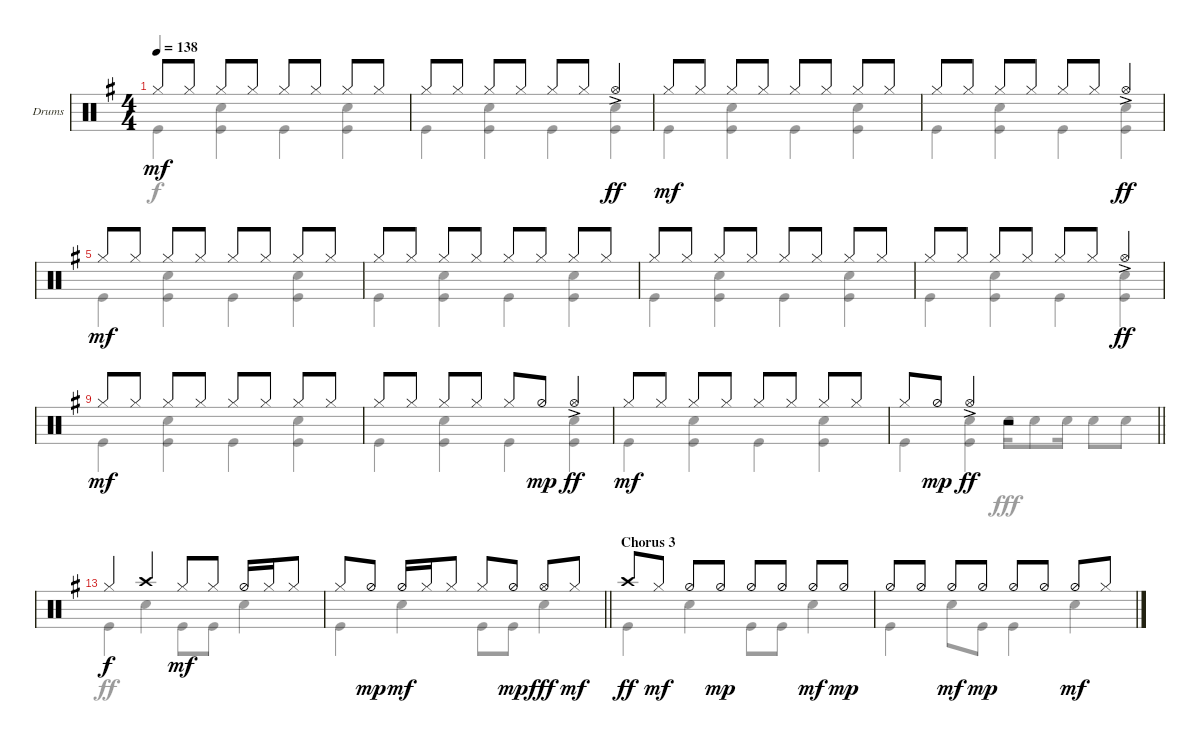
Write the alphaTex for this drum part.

\defaultSystemsLayout 4
\bracketExtendMode groupsimilarinstruments
\useSystemSignSeparator
\multiBarRest
\multiTrackTrackNamePolicy allsystems
\firstSystemTrackNameMode fullname
\firstSystemTrackNameOrientation horizontal
\otherSystemsTrackNameOrientation horizontal
\defaultBarNumberDisplay FirstOfSystem
\track ("Drums" "Dr.") {multiBarRest instrument percussion}
\staff {score}
\articulation defaults
\voice
\ts (4 4)
\tempo 138
\clef neutral
\ks g "Hi-Hat (closed)".8{dy mf} "Hi-Hat (closed)".8 "Hi-Hat (closed)".8 "Hi-Hat (closed)".8 "Hi-Hat (closed)".8 "Hi-Hat (closed)".8 "Hi-Hat (closed)".8 "Hi-Hat (closed)".8
|
"Hi-Hat (closed)".8 "Hi-Hat (closed)".8 "Hi-Hat (closed)".8 "Hi-Hat (closed)".8 "Hi-Hat (closed)".8 "Hi-Hat (closed)".8 "Hi-Hat (open)"{ac}.4{dy ff} |
"Hi-Hat (closed)".8{dy mf} "Hi-Hat (closed)".8 "Hi-Hat (closed)".8 "Hi-Hat (closed)".8 "Hi-Hat (closed)".8 "Hi-Hat (closed)".8 "Hi-Hat (closed)".8 "Hi-Hat (closed)".8 |
"Hi-Hat (closed)".8 "Hi-Hat (closed)".8 "Hi-Hat (closed)".8 "Hi-Hat (closed)".8 "Hi-Hat (closed)".8 "Hi-Hat (closed)".8 "Hi-Hat (open)"{ac}.4{dy ff} |
"Hi-Hat (closed)".8{dy mf} "Hi-Hat (closed)".8 "Hi-Hat (closed)".8 "Hi-Hat (closed)".8 "Hi-Hat (closed)".8 "Hi-Hat (closed)".8 "Hi-Hat (closed)".8 "Hi-Hat (closed)".8 |
"Hi-Hat (closed)".8 "Hi-Hat (closed)".8 "Hi-Hat (closed)".8 "Hi-Hat (closed)".8 "Hi-Hat (closed)".8 "Hi-Hat (closed)".8 "Hi-Hat (closed)".8 "Hi-Hat (closed)".8 |
"Hi-Hat (closed)".8 "Hi-Hat (closed)".8 "Hi-Hat (closed)".8 "Hi-Hat (closed)".8 "Hi-Hat (closed)".8 "Hi-Hat (closed)".8 "Hi-Hat (closed)".8 "Hi-Hat (closed)".8 |
"Hi-Hat (closed)".8 "Hi-Hat (closed)".8 "Hi-Hat (closed)".8 "Hi-Hat (closed)".8 "Hi-Hat (closed)".8 "Hi-Hat (closed)".8 "Hi-Hat (open)"{ac}.4{dy ff} |
"Hi-Hat (closed)".8{dy mf} "Hi-Hat (closed)".8 "Hi-Hat (closed)".8 "Hi-Hat (closed)".8 "Hi-Hat (closed)".8 "Hi-Hat (closed)".8 "Hi-Hat (closed)".8 "Hi-Hat (closed)".8 |
"Hi-Hat (closed)".8 "Hi-Hat (closed)".8 "Hi-Hat (closed)".8 "Hi-Hat (closed)".8 "Hi-Hat (closed)".8 "Hi-Hat (half)".8{dy mp} "Hi-Hat (open)"{ac}.4{dy ff} |
"Hi-Hat (closed)".8{dy mf} "Hi-Hat (closed)".8 "Hi-Hat (closed)".8 "Hi-Hat (closed)".8 "Hi-Hat (closed)".8 "Hi-Hat (closed)".8 "Hi-Hat (closed)".8 "Hi-Hat (closed)".8 |
\barLineRight lightlight "Hi-Hat (closed)".8 "Hi-Hat (half)".8{dy mp} "Hi-Hat (open)"{ac}.4{dy ff}
r.2 |
"Hi-Hat (closed)".4{dy f} "Crash high (hit)".4 "Hi-Hat (closed)".8{dy mf} "Hi-Hat (closed)".8 "Hi-Hat (half)".16 "Hi-Hat (closed)".16 "Hi-Hat (closed)".8 |
\barLineRight lightlight "Hi-Hat (closed)".8 "Hi-Hat (half)".8{dy mp} "Hi-Hat (half)".16{dy mf} "Hi-Hat (closed)".16 "Hi-Hat (closed)".8 "Hi-Hat (closed)".8 "Hi-Hat (half)".8{dy mp} "Hi-Hat (open)".8{dy fff} "Hi-Hat (closed)".8{dy mf}
|
\section ("" "Chorus 3")
"Crash high (hit)".8{dy ff} "Hi-Hat (closed)".8{dy mf} "Hi-Hat (half)".8 "Hi-Hat (half)".8{dy mp} "Hi-Hat (half)".8 "Hi-Hat (half)".8 "Hi-Hat (half)".8{dy mf} "Hi-Hat (half)".8{dy mp} |
"Hi-Hat (half)".8 "Hi-Hat (half)".8 "Hi-Hat (half)".8{dy mf} "Hi-Hat (half)".8{dy mp} "Hi-Hat (half)".8 "Hi-Hat (half)".8 "Hi-Hat (half)".8{dy mf} "Hi-Hat (closed)".8
\voice
\clef neutral
\ottava regular
\simile none
\ks g "Kick (hit)".4{dy f}
("Kick (hit)" "Snare (hit) 2").4 "Kick (hit)".4 ("Kick (hit)" "Snare (hit) 2").4 |
"Kick (hit)".4 ("Kick (hit)" "Snare (hit) 2").4 "Kick (hit)".4 ("Kick (hit)" "Snare (hit) 2").4 |
"Kick (hit)".4 ("Kick (hit)" "Snare (hit) 2").4 "Kick (hit)".4 ("Kick (hit)" "Snare (hit) 2").4 |
"Kick (hit)".4 ("Kick (hit)" "Snare (hit) 2").4 "Kick (hit)".4 ("Kick (hit)" "Snare (hit) 2").4 |
"Kick (hit)".4 ("Kick (hit)" "Snare (hit) 2").4 "Kick (hit)".4 ("Kick (hit)" "Snare (hit) 2").4 |
"Kick (hit)".4 ("Kick (hit)" "Snare (hit) 2").4 "Kick (hit)".4 ("Kick (hit)" "Snare (hit) 2").4 |
"Kick (hit)".4 ("Kick (hit)" "Snare (hit) 2").4 "Kick (hit)".4 ("Kick (hit)" "Snare (hit) 2").4 |
"Kick (hit)".4 ("Kick (hit)" "Snare (hit) 2").4 "Kick (hit)".4 ("Kick (hit)" "Snare (hit) 2").4 |
"Kick (hit)".4 ("Kick (hit)" "Snare (hit) 2").4 "Kick (hit)".4 ("Kick (hit)" "Snare (hit) 2").4 |
"Kick (hit)".4 ("Kick (hit)" "Snare (hit) 2").4 "Kick (hit)".4 ("Kick (hit)" "Snare (hit) 2").4 |
"Kick (hit)".4 ("Kick (hit)" "Snare (hit) 2").4 "Kick (hit)".4 ("Kick (hit)" "Snare (hit) 2").4 |
\barLineRight lightlight "Kick (hit)".4
("Kick (hit)" "Snare (hit) 2").4{dy ff} "Snare (hit) 2".16{dy fff} "Snare (hit) 2".8 "Snare (hit) 2".16 "Snare (hit) 2".8 "Snare (hit) 2".8 |
"Kick (hit)".4{dy ff} "Snare (hit) 2".4 "Kick (hit)".8 "Kick (hit)".8 "Snare (hit) 2".4 |
\barLineRight lightlight "Kick (hit)".4 "Snare (hit) 2".4 "Kick (hit)".8 "Kick (hit)".8 "Snare (hit) 2".4
|
"Kick (hit)".4 "Snare (hit) 2".4 "Kick (hit)".8 "Kick (hit)".8 "Snare (hit) 2".4 |
"Kick (hit)".4 "Snare (hit) 2".8 "Kick (hit)".8 "Kick (hit)".4 "Snare (hit) 2".4
